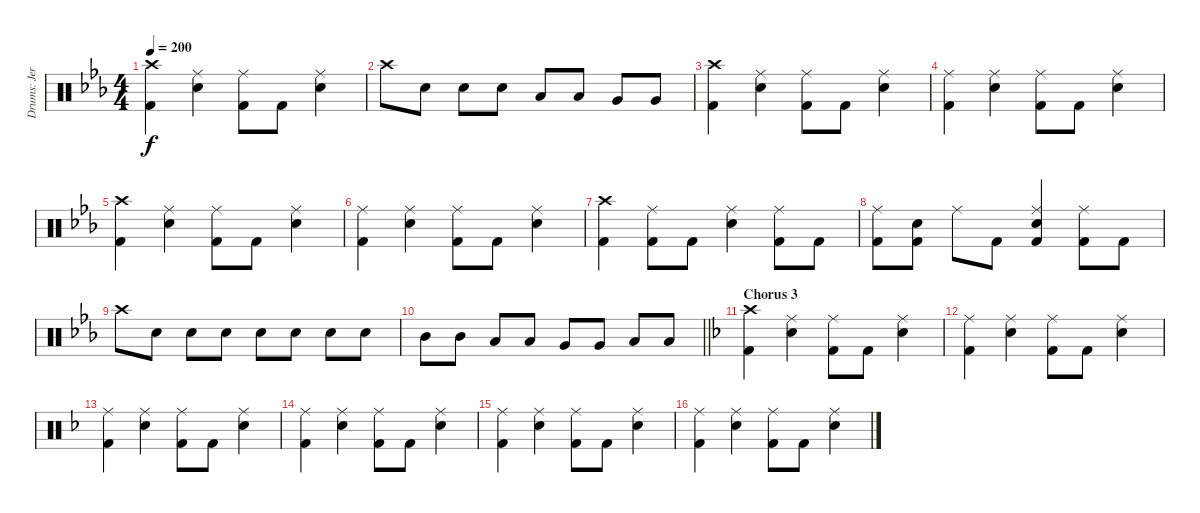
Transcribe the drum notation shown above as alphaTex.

\track ("Drums: Jere Luokkamäki" "Drums: Jer") {instrument percussion}
\staff {score}
\articulation defaults
\ts (4 4)
\tempo 200
\clef neutral
\ks cminor
("Crash high (hit)" "Kick (hit) 2").4{dy f} ("Ride (middle)" "Electric Snare (hit)").4 ("Ride (middle)" "Kick (hit) 2").8 "Kick (hit) 2".8 ("Ride (middle)" "Electric Snare (hit)").4 |
"Crash high (hit)".8 "Electric Snare (hit)".8 "Electric Snare (hit)".8 "Electric Snare (hit)".8 "Low Tom (hit)".8 "Low Tom (hit)".8 "Very Low Tom (hit)".8 "Very Low Tom (hit)".8 |
("Crash high (hit)" "Kick (hit) 2").4 ("Ride (middle)" "Electric Snare (hit)").4 ("Ride (middle)" "Kick (hit) 2").8 "Kick (hit) 2".8 ("Ride (middle)" "Electric Snare (hit)").4 |
("Ride (middle)" "Kick (hit) 2").4 ("Ride (middle)" "Electric Snare (hit)").4 ("Ride (middle)" "Kick (hit) 2").8 "Kick (hit) 2".8 ("Ride (middle)" "Electric Snare (hit)").4 |
("Crash high (hit)" "Kick (hit) 2").4 ("Ride (middle)" "Electric Snare (hit)").4 ("Ride (middle)" "Kick (hit) 2").8 "Kick (hit) 2".8 ("Ride (middle)" "Electric Snare (hit)").4 |
("Ride (middle)" "Kick (hit) 2").4 ("Ride (middle)" "Electric Snare (hit)").4 ("Ride (middle)" "Kick (hit) 2").8 "Kick (hit) 2".8 ("Ride (middle)" "Electric Snare (hit)").4 |
("Crash high (hit)" "Kick (hit) 2").4 ("Ride (middle)" "Kick (hit) 2").8 "Kick (hit) 2".8 ("Ride (middle)" "Electric Snare (hit)").4 ("Ride (middle)" "Kick (hit) 2").8 "Kick (hit) 2".8 |
("Ride (middle)" "Kick (hit) 2").8 ("Electric Snare (hit)" "Kick (hit) 2").8 "Ride (middle)".8 "Kick (hit) 2".8 ("Ride (middle)" "Electric Snare (hit)" "Kick (hit) 2").4 ("Ride (middle)" "Kick (hit) 2").8 "Kick (hit) 2".8 |
"Crash high (hit)".8 "Electric Snare (hit)".8 "Electric Snare (hit)".8 "Electric Snare (hit)".8 "Electric Snare (hit)".8 "Electric Snare (hit)".8 "Electric Snare (hit)".8 "Electric Snare (hit)".8 |
\barLineRight lightlight "Mid Tom (hit)".8 "Mid Tom (hit)".8 "Low Tom (hit)".8 "Low Tom (hit)".8 "Very Low Tom (hit)".8 "Very Low Tom (hit)".8 "Low Floor Tom (hit)".8 "Low Floor Tom (hit)".8
|
\section ("" "Chorus 3")
\ks dminor
("Crash high (hit)" "Kick (hit) 2").4 ("Ride (middle)" "Electric Snare (hit)").4 ("Ride (middle)" "Kick (hit) 2").8 "Kick (hit) 2".8 ("Ride (middle)" "Electric Snare (hit)").4 |
("Ride (middle)" "Kick (hit) 2").4 ("Ride (middle)" "Electric Snare (hit)").4 ("Ride (middle)" "Kick (hit) 2").8 "Kick (hit) 2".8 ("Ride (middle)" "Electric Snare (hit)").4 |
("Ride (middle)" "Kick (hit) 2").4 ("Ride (middle)" "Electric Snare (hit)").4 ("Ride (middle)" "Kick (hit) 2").8 "Kick (hit) 2".8 ("Ride (middle)" "Electric Snare (hit)").4 |
("Ride (middle)" "Kick (hit) 2").4 ("Ride (middle)" "Electric Snare (hit)").4 ("Ride (middle)" "Kick (hit) 2").8 "Kick (hit) 2".8 ("Ride (middle)" "Electric Snare (hit)").4 |
("Ride (middle)" "Kick (hit) 2").4 ("Ride (middle)" "Electric Snare (hit)").4 ("Ride (middle)" "Kick (hit) 2").8 "Kick (hit) 2".8 ("Ride (middle)" "Electric Snare (hit)").4 |
("Ride (middle)" "Kick (hit) 2").4 ("Ride (middle)" "Electric Snare (hit)").4 ("Ride (middle)" "Kick (hit) 2").8 "Kick (hit) 2".8 ("Ride (middle)" "Electric Snare (hit)").4
